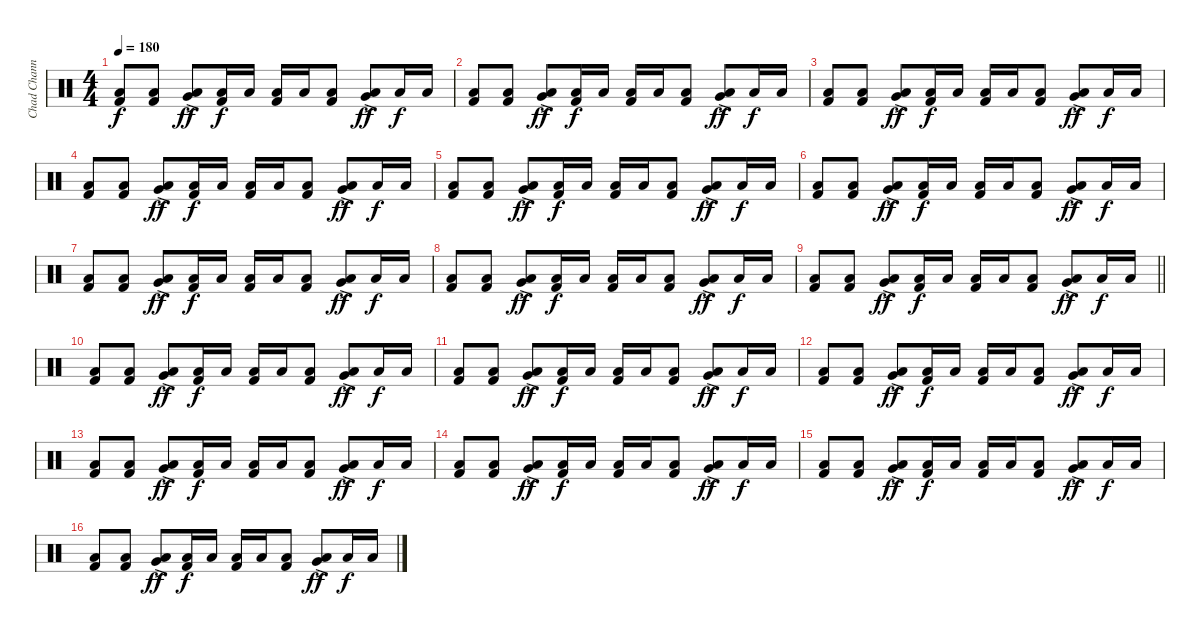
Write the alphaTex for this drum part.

\track ("Chad Channing" "Chad Chann") {instrument percussion}
\staff {score}
\articulation defaults
\ts (4 4)
\tempo 180
\clef neutral
\ks c
("Low Tom (hit)" "Kick (hit) 2").8{dy f} ("Low Tom (hit)" "Kick (hit) 2").8 ("Very Low Tom (hit)"{ac} "Low Floor Tom (hit)"{ac}).8{dy ff} ("Low Tom (hit)" "Kick (hit) 2").16{dy f} "Low Tom (hit)".16 ("Low Tom (hit)" "Kick (hit) 2").16 "Low Tom (hit)".16 ("Low Tom (hit)" "Kick (hit) 2").8 ("Very Low Tom (hit)"{ac} "Low Floor Tom (hit)"{ac}).8{dy ff} "Low Tom (hit)".16{dy f} "Low Tom (hit)".16 |
("Low Tom (hit)" "Kick (hit) 2").8 ("Low Tom (hit)" "Kick (hit) 2").8 ("Very Low Tom (hit)"{ac} "Low Floor Tom (hit)"{ac}).8{dy ff} ("Low Tom (hit)" "Kick (hit) 2").16{dy f} "Low Tom (hit)".16 ("Low Tom (hit)" "Kick (hit) 2").16 "Low Tom (hit)".16 ("Low Tom (hit)" "Kick (hit) 2").8 ("Very Low Tom (hit)"{ac} "Low Floor Tom (hit)"{ac}).8{dy ff} "Low Tom (hit)".16{dy f} "Low Tom (hit)".16 |
("Low Tom (hit)" "Kick (hit) 2").8 ("Low Tom (hit)" "Kick (hit) 2").8 ("Very Low Tom (hit)"{ac} "Low Floor Tom (hit)"{ac}).8{dy ff} ("Low Tom (hit)" "Kick (hit) 2").16{dy f} "Low Tom (hit)".16 ("Low Tom (hit)" "Kick (hit) 2").16 "Low Tom (hit)".16 ("Low Tom (hit)" "Kick (hit) 2").8 ("Very Low Tom (hit)"{ac} "Low Floor Tom (hit)"{ac}).8{dy ff} "Low Tom (hit)".16{dy f} "Low Tom (hit)".16 |
("Low Tom (hit)" "Kick (hit) 2").8 ("Low Tom (hit)" "Kick (hit) 2").8 ("Very Low Tom (hit)"{ac} "Low Floor Tom (hit)"{ac}).8{dy ff} ("Low Tom (hit)" "Kick (hit) 2").16{dy f} "Low Tom (hit)".16 ("Low Tom (hit)" "Kick (hit) 2").16 "Low Tom (hit)".16 ("Low Tom (hit)" "Kick (hit) 2").8 ("Very Low Tom (hit)"{ac} "Low Floor Tom (hit)"{ac}).8{dy ff} "Low Tom (hit)".16{dy f} "Low Tom (hit)".16 |
("Low Tom (hit)" "Kick (hit) 2").8 ("Low Tom (hit)" "Kick (hit) 2").8 ("Very Low Tom (hit)"{ac} "Low Floor Tom (hit)"{ac}).8{dy ff} ("Low Tom (hit)" "Kick (hit) 2").16{dy f} "Low Tom (hit)".16 ("Low Tom (hit)" "Kick (hit) 2").16 "Low Tom (hit)".16 ("Low Tom (hit)" "Kick (hit) 2").8 ("Very Low Tom (hit)"{ac} "Low Floor Tom (hit)"{ac}).8{dy ff} "Low Tom (hit)".16{dy f} "Low Tom (hit)".16 |
("Low Tom (hit)" "Kick (hit) 2").8 ("Low Tom (hit)" "Kick (hit) 2").8 ("Very Low Tom (hit)"{ac} "Low Floor Tom (hit)"{ac}).8{dy ff} ("Low Tom (hit)" "Kick (hit) 2").16{dy f} "Low Tom (hit)".16 ("Low Tom (hit)" "Kick (hit) 2").16 "Low Tom (hit)".16 ("Low Tom (hit)" "Kick (hit) 2").8 ("Very Low Tom (hit)"{ac} "Low Floor Tom (hit)"{ac}).8{dy ff} "Low Tom (hit)".16{dy f} "Low Tom (hit)".16 |
("Low Tom (hit)" "Kick (hit) 2").8 ("Low Tom (hit)" "Kick (hit) 2").8 ("Very Low Tom (hit)"{ac} "Low Floor Tom (hit)"{ac}).8{dy ff} ("Low Tom (hit)" "Kick (hit) 2").16{dy f} "Low Tom (hit)".16 ("Low Tom (hit)" "Kick (hit) 2").16 "Low Tom (hit)".16 ("Low Tom (hit)" "Kick (hit) 2").8 ("Very Low Tom (hit)"{ac} "Low Floor Tom (hit)"{ac}).8{dy ff} "Low Tom (hit)".16{dy f} "Low Tom (hit)".16 |
("Low Tom (hit)" "Kick (hit) 2").8 ("Low Tom (hit)" "Kick (hit) 2").8 ("Very Low Tom (hit)"{ac} "Low Floor Tom (hit)"{ac}).8{dy ff} ("Low Tom (hit)" "Kick (hit) 2").16{dy f} "Low Tom (hit)".16 ("Low Tom (hit)" "Kick (hit) 2").16 "Low Tom (hit)".16 ("Low Tom (hit)" "Kick (hit) 2").8 ("Very Low Tom (hit)"{ac} "Low Floor Tom (hit)"{ac}).8{dy ff} "Low Tom (hit)".16{dy f} "Low Tom (hit)".16 |
\barLineRight lightlight
("Low Tom (hit)" "Kick (hit) 2").8 ("Low Tom (hit)" "Kick (hit) 2").8 ("Very Low Tom (hit)"{ac} "Low Floor Tom (hit)"{ac}).8{dy ff} ("Low Tom (hit)" "Kick (hit) 2").16{dy f} "Low Tom (hit)".16 ("Low Tom (hit)" "Kick (hit) 2").16 "Low Tom (hit)".16 ("Low Tom (hit)" "Kick (hit) 2").8 ("Very Low Tom (hit)"{ac} "Low Floor Tom (hit)"{ac}).8{dy ff} "Low Tom (hit)".16{dy f} "Low Tom (hit)".16 |
("Low Tom (hit)" "Kick (hit) 2").8 ("Low Tom (hit)" "Kick (hit) 2").8 ("Very Low Tom (hit)"{ac} "Low Floor Tom (hit)"{ac}).8{dy ff} ("Low Tom (hit)" "Kick (hit) 2").16{dy f} "Low Tom (hit)".16 ("Low Tom (hit)" "Kick (hit) 2").16 "Low Tom (hit)".16 ("Low Tom (hit)" "Kick (hit) 2").8 ("Very Low Tom (hit)"{ac} "Low Floor Tom (hit)"{ac}).8{dy ff} "Low Tom (hit)".16{dy f} "Low Tom (hit)".16 |
("Low Tom (hit)" "Kick (hit) 2").8 ("Low Tom (hit)" "Kick (hit) 2").8 ("Very Low Tom (hit)"{ac} "Low Floor Tom (hit)"{ac}).8{dy ff} ("Low Tom (hit)" "Kick (hit) 2").16{dy f} "Low Tom (hit)".16 ("Low Tom (hit)" "Kick (hit) 2").16 "Low Tom (hit)".16 ("Low Tom (hit)" "Kick (hit) 2").8 ("Very Low Tom (hit)"{ac} "Low Floor Tom (hit)"{ac}).8{dy ff} "Low Tom (hit)".16{dy f} "Low Tom (hit)".16 |
("Low Tom (hit)" "Kick (hit) 2").8 ("Low Tom (hit)" "Kick (hit) 2").8 ("Very Low Tom (hit)"{ac} "Low Floor Tom (hit)"{ac}).8{dy ff} ("Low Tom (hit)" "Kick (hit) 2").16{dy f} "Low Tom (hit)".16 ("Low Tom (hit)" "Kick (hit) 2").16 "Low Tom (hit)".16 ("Low Tom (hit)" "Kick (hit) 2").8 ("Very Low Tom (hit)"{ac} "Low Floor Tom (hit)"{ac}).8{dy ff} "Low Tom (hit)".16{dy f} "Low Tom (hit)".16 |
("Low Tom (hit)" "Kick (hit) 2").8 ("Low Tom (hit)" "Kick (hit) 2").8 ("Very Low Tom (hit)"{ac} "Low Floor Tom (hit)"{ac}).8{dy ff} ("Low Tom (hit)" "Kick (hit) 2").16{dy f} "Low Tom (hit)".16 ("Low Tom (hit)" "Kick (hit) 2").16 "Low Tom (hit)".16 ("Low Tom (hit)" "Kick (hit) 2").8 ("Very Low Tom (hit)"{ac} "Low Floor Tom (hit)"{ac}).8{dy ff} "Low Tom (hit)".16{dy f} "Low Tom (hit)".16 |
("Low Tom (hit)" "Kick (hit) 2").8 ("Low Tom (hit)" "Kick (hit) 2").8 ("Very Low Tom (hit)"{ac} "Low Floor Tom (hit)"{ac}).8{dy ff} ("Low Tom (hit)" "Kick (hit) 2").16{dy f} "Low Tom (hit)".16 ("Low Tom (hit)" "Kick (hit) 2").16 "Low Tom (hit)".16 ("Low Tom (hit)" "Kick (hit) 2").8 ("Very Low Tom (hit)"{ac} "Low Floor Tom (hit)"{ac}).8{dy ff} "Low Tom (hit)".16{dy f} "Low Tom (hit)".16 |
("Low Tom (hit)" "Kick (hit) 2").8 ("Low Tom (hit)" "Kick (hit) 2").8 ("Very Low Tom (hit)"{ac} "Low Floor Tom (hit)"{ac}).8{dy ff} ("Low Tom (hit)" "Kick (hit) 2").16{dy f} "Low Tom (hit)".16 ("Low Tom (hit)" "Kick (hit) 2").16 "Low Tom (hit)".16 ("Low Tom (hit)" "Kick (hit) 2").8 ("Very Low Tom (hit)"{ac} "Low Floor Tom (hit)"{ac}).8{dy ff} "Low Tom (hit)".16{dy f} "Low Tom (hit)".16 |
("Low Tom (hit)" "Kick (hit) 2").8 ("Low Tom (hit)" "Kick (hit) 2").8 ("Very Low Tom (hit)"{ac} "Low Floor Tom (hit)"{ac}).8{dy ff} ("Low Tom (hit)" "Kick (hit) 2").16{dy f} "Low Tom (hit)".16 ("Low Tom (hit)" "Kick (hit) 2").16 "Low Tom (hit)".16 ("Low Tom (hit)" "Kick (hit) 2").8 ("Very Low Tom (hit)"{ac} "Low Floor Tom (hit)"{ac}).8{dy ff} "Low Tom (hit)".16{dy f} "Low Tom (hit)".16
